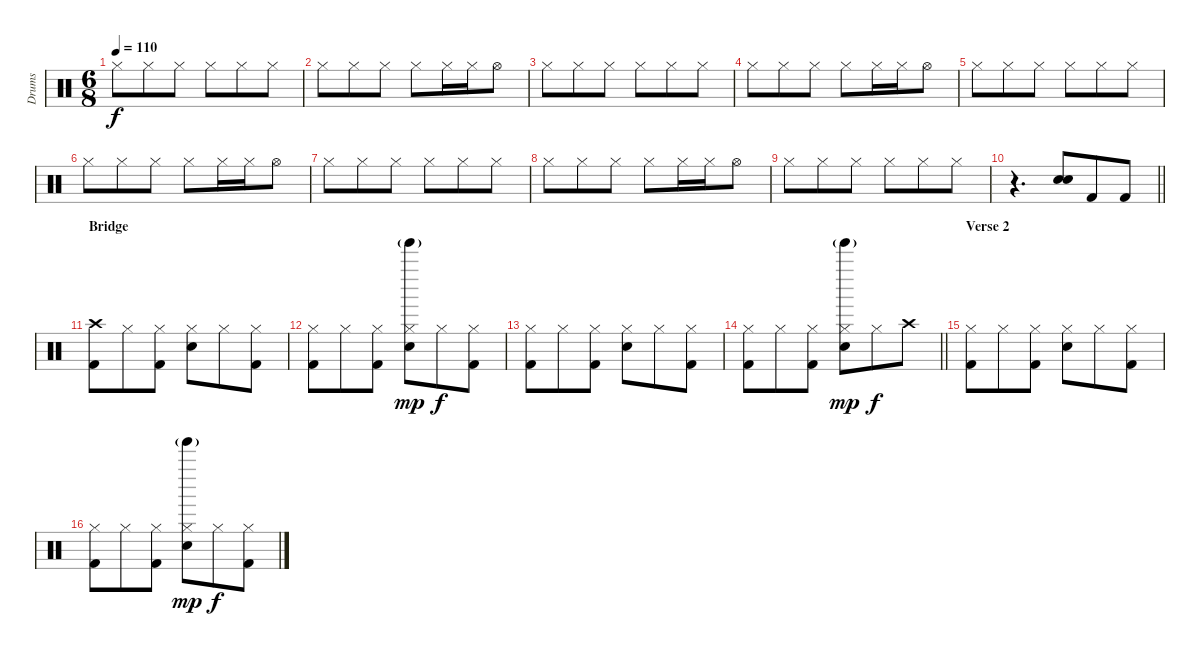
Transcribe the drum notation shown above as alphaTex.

\track ("Drums" "Drums") {instrument percussion}
\staff {score}
\articulation defaults
\ts (6 8)
\tempo 110
\clef neutral
\ks c "Hi-Hat (closed)".8{dy f} "Hi-Hat (closed)".8 "Hi-Hat (closed)".8 "Hi-Hat (closed)".8 "Hi-Hat (closed)".8 "Hi-Hat (closed)".8
|
"Hi-Hat (closed)".8 "Hi-Hat (closed)".8 "Hi-Hat (closed)".8 "Hi-Hat (closed)".8 "Hi-Hat (closed)".16 "Hi-Hat (closed)".16 "Hi-Hat (open)".8 |
"Hi-Hat (closed)".8 "Hi-Hat (closed)".8 "Hi-Hat (closed)".8 "Hi-Hat (closed)".8 "Hi-Hat (closed)".8 "Hi-Hat (closed)".8 |
"Hi-Hat (closed)".8 "Hi-Hat (closed)".8 "Hi-Hat (closed)".8 "Hi-Hat (closed)".8 "Hi-Hat (closed)".16 "Hi-Hat (closed)".16 "Hi-Hat (open)".8 |
"Hi-Hat (closed)".8 "Hi-Hat (closed)".8 "Hi-Hat (closed)".8 "Hi-Hat (closed)".8 "Hi-Hat (closed)".8 "Hi-Hat (closed)".8 |
"Hi-Hat (closed)".8 "Hi-Hat (closed)".8 "Hi-Hat (closed)".8 "Hi-Hat (closed)".8 "Hi-Hat (closed)".16 "Hi-Hat (closed)".16 "Hi-Hat (open)".8 |
"Hi-Hat (closed)".8 "Hi-Hat (closed)".8 "Hi-Hat (closed)".8 "Hi-Hat (closed)".8 "Hi-Hat (closed)".8 "Hi-Hat (closed)".8 |
"Hi-Hat (closed)".8 "Hi-Hat (closed)".8 "Hi-Hat (closed)".8 "Hi-Hat (closed)".8 "Hi-Hat (closed)".16 "Hi-Hat (closed)".16 "Hi-Hat (open)".8 |
"Hi-Hat (closed)".8 "Hi-Hat (closed)".8 "Hi-Hat (closed)".8 "Hi-Hat (closed)".8 "Hi-Hat (closed)".8 "Hi-Hat (closed)".8 |
\barLineRight lightlight
r.4{d} ("Snare (hit) 2" "Snare (hit) 2").8 "Kick (hit) 2".8 "Kick (hit) 2".8 |
\section ("" "Bridge")
("Crash high (hit)" "Kick (hit) 2").8 "Hi-Hat (closed)".8 ("Hi-Hat (closed)" "Kick (hit) 2").8 ("Hi-Hat (closed)" "Snare (hit) 2").8 "Hi-Hat (closed)".8 ("Hi-Hat (closed)" "Kick (hit) 2").8 |
("Hi-Hat (closed)" "Kick (hit) 2").8 "Hi-Hat (closed)".8 ("Hi-Hat (closed)" "Kick (hit) 2").8 ("Hi-Hat (closed)" "Tinkle Bell (hit)"{g} "Snare (hit) 2").8{dy mp} "Hi-Hat (closed)".8{dy f} ("Hi-Hat (closed)" "Kick (hit) 2").8 |
("Hi-Hat (closed)" "Kick (hit) 2").8 "Hi-Hat (closed)".8 ("Hi-Hat (closed)" "Kick (hit) 2").8 ("Hi-Hat (closed)" "Snare (hit) 2").8 "Hi-Hat (closed)".8 ("Hi-Hat (closed)" "Kick (hit) 2").8 |
\barLineRight lightlight
("Hi-Hat (closed)" "Kick (hit) 2").8 "Hi-Hat (closed)".8 ("Hi-Hat (closed)" "Kick (hit) 2").8 ("Hi-Hat (closed)" "Tinkle Bell (hit)"{g} "Snare (hit) 2").8{dy mp} "Hi-Hat (closed)".8{dy f} "Crash high (hit)".8 |
\section ("" "Verse 2")
("Hi-Hat (closed)" "Kick (hit) 2").8 "Hi-Hat (closed)".8 ("Hi-Hat (closed)" "Kick (hit) 2").8 ("Hi-Hat (closed)" "Snare (hit) 2").8 "Hi-Hat (closed)".8 ("Hi-Hat (closed)" "Kick (hit) 2").8 |
("Hi-Hat (closed)" "Kick (hit) 2").8 "Hi-Hat (closed)".8 ("Hi-Hat (closed)" "Kick (hit) 2").8 ("Hi-Hat (closed)" "Tinkle Bell (hit)"{g} "Snare (hit) 2").8{dy mp} "Hi-Hat (closed)".8{dy f} ("Hi-Hat (closed)" "Kick (hit) 2").8
